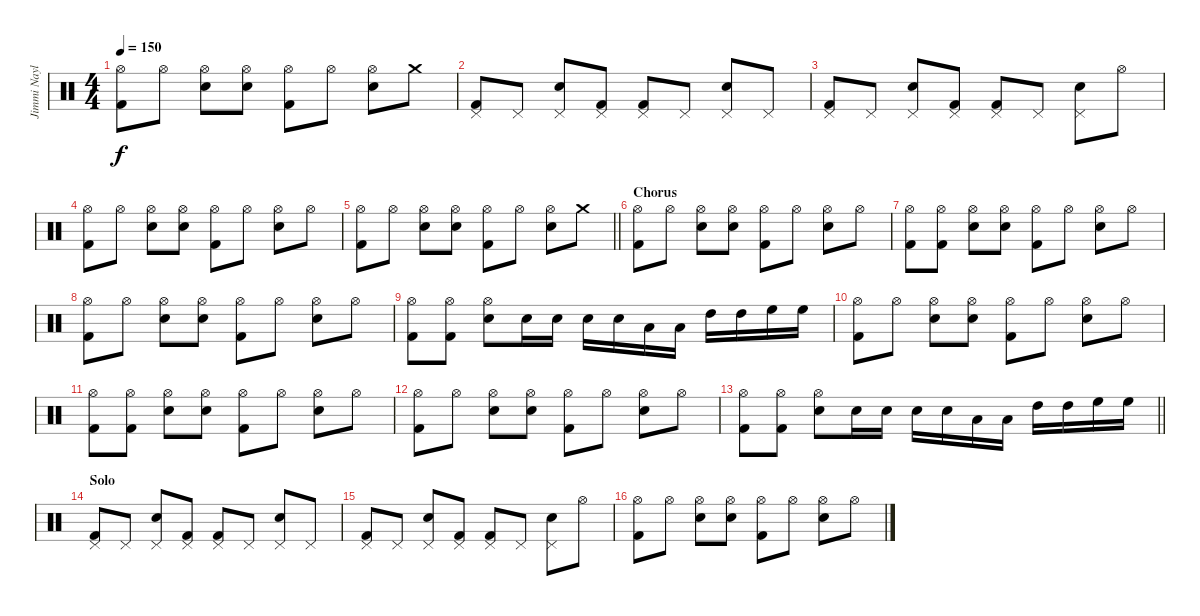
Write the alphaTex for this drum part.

\track ("Jimmi Naylor" "Jimmi Nayl") {instrument percussion}
\staff {score}
\articulation defaults
\ts (4 4)
\tempo 150
\clef neutral
\ks c
("Kick (hit) 2" "Hi-Hat (open)").8{dy f} "Hi-Hat (open)".8 ("Snare (hit) 2" "Hi-Hat (open)").8 ("Snare (hit) 2" "Hi-Hat (open)").8 ("Kick (hit) 2" "Hi-Hat (open)").8 "Hi-Hat (open)".8 ("Snare (hit) 2" "Hi-Hat (open)").8 "Crash medium (hit)".8 |
("Kick (hit) 2" "Pedal Hi-Hat (hit)").8 "Pedal Hi-Hat (hit)".8 ("Electric Snare (hit)" "Pedal Hi-Hat (hit)").8 ("Kick (hit) 2" "Pedal Hi-Hat (hit)").8 ("Kick (hit) 2" "Pedal Hi-Hat (hit)").8 "Pedal Hi-Hat (hit)".8 ("Electric Snare (hit)" "Pedal Hi-Hat (hit)").8 "Pedal Hi-Hat (hit)".8 |
("Kick (hit) 2" "Pedal Hi-Hat (hit)").8 "Pedal Hi-Hat (hit)".8 ("Electric Snare (hit)" "Pedal Hi-Hat (hit)").8 ("Kick (hit) 2" "Pedal Hi-Hat (hit)").8 ("Kick (hit) 2" "Pedal Hi-Hat (hit)").8 "Pedal Hi-Hat (hit)".8 ("Electric Snare (hit)" "Pedal Hi-Hat (hit)").8 "Hi-Hat (open)".8 |
("Kick (hit) 2" "Hi-Hat (open)").8 "Hi-Hat (open)".8 ("Snare (hit) 2" "Hi-Hat (open)").8 ("Snare (hit) 2" "Hi-Hat (open)").8 ("Kick (hit) 2" "Hi-Hat (open)").8 "Hi-Hat (open)".8 ("Snare (hit) 2" "Hi-Hat (open)").8 "Hi-Hat (open)".8 |
\barLineRight lightlight
("Kick (hit) 2" "Hi-Hat (open)").8 "Hi-Hat (open)".8 ("Snare (hit) 2" "Hi-Hat (open)").8 ("Snare (hit) 2" "Hi-Hat (open)").8 ("Kick (hit) 2" "Hi-Hat (open)").8 "Hi-Hat (open)".8 ("Snare (hit) 2" "Hi-Hat (open)").8 "Crash medium (hit)".8 |
\section ("" "Chorus")
("Kick (hit) 2" "Hi-Hat (open)").8 "Hi-Hat (open)".8 ("Snare (hit) 2" "Hi-Hat (open)").8 ("Snare (hit) 2" "Hi-Hat (open)").8 ("Kick (hit) 2" "Hi-Hat (open)").8 "Hi-Hat (open)".8 ("Snare (hit) 2" "Hi-Hat (open)").8 "Hi-Hat (open)".8 |
("Kick (hit) 2" "Hi-Hat (open)").8 ("Kick (hit) 2" "Hi-Hat (open)").8 ("Snare (hit) 2" "Hi-Hat (open)").8 ("Snare (hit) 2" "Hi-Hat (open)").8 ("Kick (hit) 2" "Hi-Hat (open)").8 "Hi-Hat (open)".8 ("Snare (hit) 2" "Hi-Hat (open)").8 "Hi-Hat (open)".8 |
("Kick (hit) 2" "Hi-Hat (open)").8 "Hi-Hat (open)".8 ("Snare (hit) 2" "Hi-Hat (open)").8 ("Snare (hit) 2" "Hi-Hat (open)").8 ("Kick (hit) 2" "Hi-Hat (open)").8 "Hi-Hat (open)".8 ("Snare (hit) 2" "Hi-Hat (open)").8 "Hi-Hat (open)".8 |
("Kick (hit) 2" "Hi-Hat (open)").8 ("Kick (hit) 2" "Hi-Hat (open)").8 ("Snare (hit) 2" "Hi-Hat (open)").8 "Snare (hit) 2".16 "Snare (hit) 2".16 "Electric Snare (hit)".16 "Electric Snare (hit)".16 "Low Tom (hit)".16 "Low Tom (hit)".16 "High Tom (hit)".16 "High Tom (hit)".16 "High Floor Tom (hit)".16 "High Floor Tom (hit)".16 |
("Kick (hit) 2" "Hi-Hat (open)").8 "Hi-Hat (open)".8 ("Snare (hit) 2" "Hi-Hat (open)").8 ("Snare (hit) 2" "Hi-Hat (open)").8 ("Kick (hit) 2" "Hi-Hat (open)").8 "Hi-Hat (open)".8 ("Snare (hit) 2" "Hi-Hat (open)").8 "Hi-Hat (open)".8 |
("Kick (hit) 2" "Hi-Hat (open)").8 ("Kick (hit) 2" "Hi-Hat (open)").8 ("Snare (hit) 2" "Hi-Hat (open)").8 ("Snare (hit) 2" "Hi-Hat (open)").8 ("Kick (hit) 2" "Hi-Hat (open)").8 "Hi-Hat (open)".8 ("Snare (hit) 2" "Hi-Hat (open)").8 "Hi-Hat (open)".8 |
("Kick (hit) 2" "Hi-Hat (open)").8 "Hi-Hat (open)".8 ("Snare (hit) 2" "Hi-Hat (open)").8 ("Snare (hit) 2" "Hi-Hat (open)").8 ("Kick (hit) 2" "Hi-Hat (open)").8 "Hi-Hat (open)".8 ("Snare (hit) 2" "Hi-Hat (open)").8 "Hi-Hat (open)".8 |
\barLineRight lightlight
("Kick (hit) 2" "Hi-Hat (open)").8 ("Kick (hit) 2" "Hi-Hat (open)").8 ("Snare (hit) 2" "Hi-Hat (open)").8 "Snare (hit) 2".16 "Snare (hit) 2".16 "Electric Snare (hit)".16 "Electric Snare (hit)".16 "Low Tom (hit)".16 "Low Tom (hit)".16 "High Tom (hit)".16 "High Tom (hit)".16 "High Floor Tom (hit)".16 "High Floor Tom (hit)".16 |
\section ("" "Solo")
("Kick (hit) 2" "Pedal Hi-Hat (hit)").8 "Pedal Hi-Hat (hit)".8 ("Electric Snare (hit)" "Pedal Hi-Hat (hit)").8 ("Kick (hit) 2" "Pedal Hi-Hat (hit)").8 ("Kick (hit) 2" "Pedal Hi-Hat (hit)").8 "Pedal Hi-Hat (hit)".8 ("Electric Snare (hit)" "Pedal Hi-Hat (hit)").8 "Pedal Hi-Hat (hit)".8 |
("Kick (hit) 2" "Pedal Hi-Hat (hit)").8 "Pedal Hi-Hat (hit)".8 ("Electric Snare (hit)" "Pedal Hi-Hat (hit)").8 ("Kick (hit) 2" "Pedal Hi-Hat (hit)").8 ("Kick (hit) 2" "Pedal Hi-Hat (hit)").8 "Pedal Hi-Hat (hit)".8 ("Electric Snare (hit)" "Pedal Hi-Hat (hit)").8 "Hi-Hat (open)".8 |
("Kick (hit) 2" "Hi-Hat (open)").8 "Hi-Hat (open)".8 ("Snare (hit) 2" "Hi-Hat (open)").8 ("Snare (hit) 2" "Hi-Hat (open)").8 ("Kick (hit) 2" "Hi-Hat (open)").8 "Hi-Hat (open)".8 ("Snare (hit) 2" "Hi-Hat (open)").8 "Hi-Hat (open)".8
